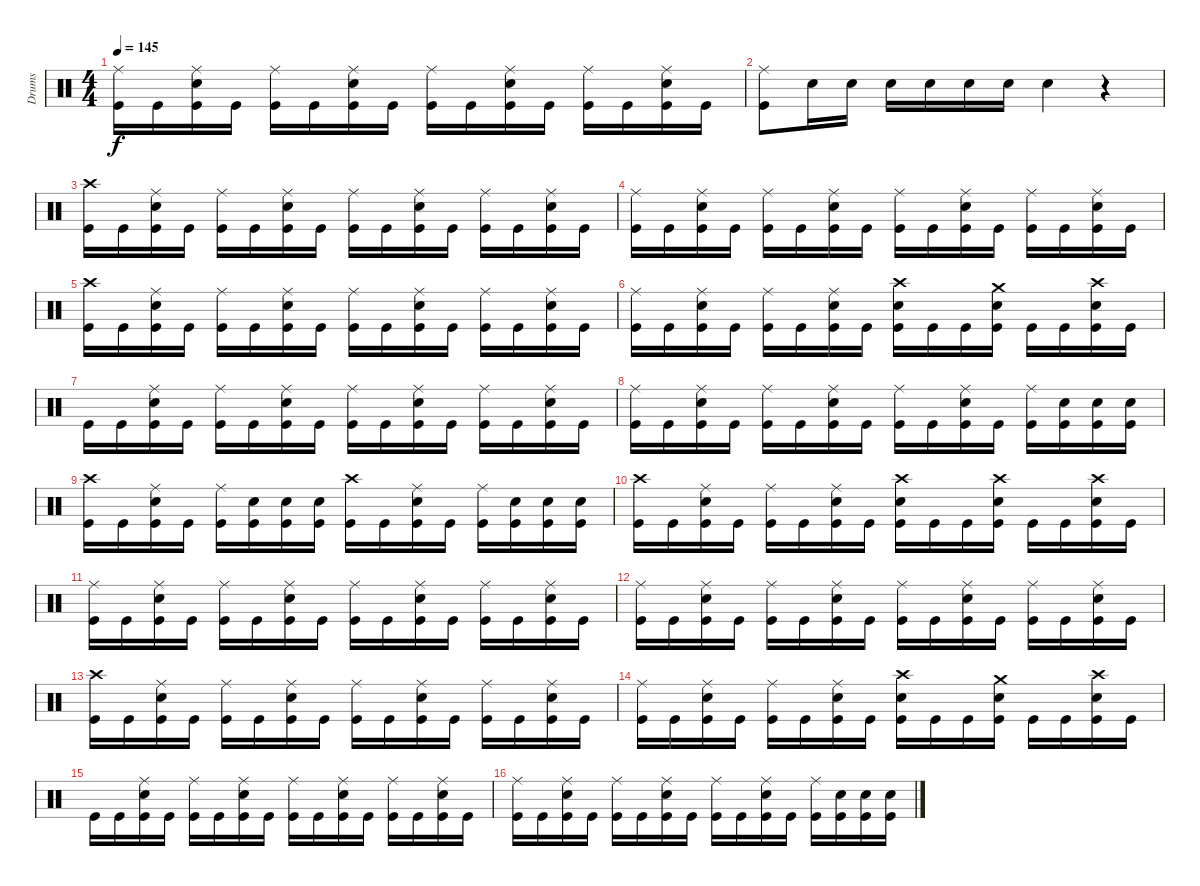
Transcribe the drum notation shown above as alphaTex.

\track ("Drums" "Drums") {instrument percussion}
\staff {score}
\articulation defaults
\ts (4 4)
\tempo 145
\clef neutral
\ks c
("Ride (middle)" "Kick (hit)").16{dy f} "Kick (hit)".16 ("Ride (middle)" "Snare (hit) 2" "Kick (hit)").16 "Kick (hit)".16 ("Ride (middle)" "Kick (hit)").16 "Kick (hit)".16 ("Ride (middle)" "Snare (hit) 2" "Kick (hit)").16 "Kick (hit)".16 ("Ride (middle)" "Kick (hit)").16 "Kick (hit)".16 ("Ride (middle)" "Snare (hit) 2" "Kick (hit)").16 "Kick (hit)".16 ("Ride (middle)" "Kick (hit)").16 "Kick (hit)".16 ("Ride (middle)" "Snare (hit) 2" "Kick (hit)").16 "Kick (hit)".16 |
("Ride (middle)" "Kick (hit)").8 "Snare (hit) 2".16 "Snare (hit) 2".16 "Snare (hit) 2".16 "Snare (hit) 2".16 "Snare (hit) 2".16 "Snare (hit) 2".16 "Snare (hit) 2".4 r.4 |
("Crash high (hit)" "Kick (hit)").16 "Kick (hit)".16 ("Ride (middle)" "Snare (hit) 2" "Kick (hit)").16 "Kick (hit)".16 ("Ride (middle)" "Kick (hit)").16 "Kick (hit)".16 ("Ride (middle)" "Snare (hit) 2" "Kick (hit)").16 "Kick (hit)".16 ("Ride (middle)" "Kick (hit)").16 "Kick (hit)".16 ("Ride (middle)" "Snare (hit) 2" "Kick (hit)").16 "Kick (hit)".16 ("Ride (middle)" "Kick (hit)").16 "Kick (hit)".16 ("Ride (middle)" "Snare (hit) 2" "Kick (hit)").16 "Kick (hit)".16 |
("Ride (middle)" "Kick (hit)").16 "Kick (hit)".16 ("Ride (middle)" "Snare (hit) 2" "Kick (hit)").16 "Kick (hit)".16 ("Ride (middle)" "Kick (hit)").16 "Kick (hit)".16 ("Ride (middle)" "Snare (hit) 2" "Kick (hit)").16 "Kick (hit)".16 ("Ride (middle)" "Kick (hit)").16 "Kick (hit)".16 ("Ride (middle)" "Snare (hit) 2" "Kick (hit)").16 "Kick (hit)".16 ("Ride (middle)" "Kick (hit)").16 "Kick (hit)".16 ("Ride (middle)" "Snare (hit) 2" "Kick (hit)").16 "Kick (hit)".16 |
("Crash high (hit)" "Kick (hit)").16 "Kick (hit)".16 ("Ride (middle)" "Snare (hit) 2" "Kick (hit)").16 "Kick (hit)".16 ("Ride (middle)" "Kick (hit)").16 "Kick (hit)".16 ("Ride (middle)" "Snare (hit) 2" "Kick (hit)").16 "Kick (hit)".16 ("Ride (middle)" "Kick (hit)").16 "Kick (hit)".16 ("Ride (middle)" "Snare (hit) 2" "Kick (hit)").16 "Kick (hit)".16 ("Ride (middle)" "Kick (hit)").16 "Kick (hit)".16 ("Ride (middle)" "Snare (hit) 2" "Kick (hit)").16 "Kick (hit)".16 |
("Ride (middle)" "Kick (hit)").16 "Kick (hit)".16 ("Ride (middle)" "Snare (hit) 2" "Kick (hit)").16 "Kick (hit)".16 ("Ride (middle)" "Kick (hit)").16 "Kick (hit)".16 ("Ride (middle)" "Snare (hit) 2" "Kick (hit)").16 "Kick (hit)".16 ("Crash high (hit)" "Snare (hit) 2" "Kick (hit)").16 "Kick (hit)".16 "Kick (hit)".16 ("Crash medium (hit)" "Snare (hit) 2" "Kick (hit)").16 "Kick (hit)".16 "Kick (hit)".16 ("Crash high (hit)" "Snare (hit) 2" "Kick (hit)").16 "Kick (hit)".16 |
"Kick (hit)".16 "Kick (hit)".16 ("Ride (middle)" "Snare (hit) 2" "Kick (hit)").16 "Kick (hit)".16 ("Ride (middle)" "Kick (hit)").16 "Kick (hit)".16 ("Ride (middle)" "Snare (hit) 2" "Kick (hit)").16 "Kick (hit)".16 ("Ride (middle)" "Kick (hit)").16 "Kick (hit)".16 ("Ride (middle)" "Snare (hit) 2" "Kick (hit)").16 "Kick (hit)".16 ("Ride (middle)" "Kick (hit)").16 "Kick (hit)".16 ("Ride (middle)" "Snare (hit) 2" "Kick (hit)").16 "Kick (hit)".16 |
("Ride (middle)" "Kick (hit)").16 "Kick (hit)".16 ("Ride (middle)" "Snare (hit) 2" "Kick (hit)").16 "Kick (hit)".16 ("Ride (middle)" "Kick (hit)").16 "Kick (hit)".16 ("Ride (middle)" "Snare (hit) 2" "Kick (hit)").16 "Kick (hit)".16 ("Ride (middle)" "Kick (hit)").16 "Kick (hit)".16 ("Ride (middle)" "Snare (hit) 2" "Kick (hit)").16 "Kick (hit)".16 ("Ride (middle)" "Kick (hit)").16 ("Snare (hit) 2" "Kick (hit)").16 ("Snare (hit) 2" "Kick (hit)").16 ("Snare (hit) 2" "Kick (hit)").16 |
("Crash high (hit)" "Kick (hit)").16 "Kick (hit)".16 ("Ride (middle)" "Snare (hit) 2" "Kick (hit)").16 "Kick (hit)".16 ("Ride (middle)" "Kick (hit)").16 ("Snare (hit) 2" "Kick (hit)").16 ("Snare (hit) 2" "Kick (hit)").16 ("Snare (hit) 2" "Kick (hit)").16 ("Crash high (hit)" "Kick (hit)").16 "Kick (hit)".16 ("Ride (middle)" "Snare (hit) 2" "Kick (hit)").16 "Kick (hit)".16 ("Ride (middle)" "Kick (hit)").16 ("Snare (hit) 2" "Kick (hit)").16 ("Snare (hit) 2" "Kick (hit)").16 ("Snare (hit) 2" "Kick (hit)").16 |
("Crash high (hit)" "Kick (hit)").16 "Kick (hit)".16 ("Ride (middle)" "Snare (hit) 2" "Kick (hit)").16 "Kick (hit)".16 ("Ride (middle)" "Kick (hit)").16 "Kick (hit)".16 ("Ride (middle)" "Snare (hit) 2" "Kick (hit)").16 "Kick (hit)".16 ("Crash high (hit)" "Snare (hit) 2" "Kick (hit)").16 "Kick (hit)".16 "Kick (hit)".16 ("Crash high (hit)" "Snare (hit) 2" "Kick (hit)").16 "Kick (hit)".16 "Kick (hit)".16 ("Crash high (hit)" "Snare (hit) 2" "Kick (hit)").16 "Kick (hit)".16 |
("Ride (middle)" "Kick (hit)").16 "Kick (hit)".16 ("Ride (middle)" "Snare (hit) 2" "Kick (hit)").16 "Kick (hit)".16 ("Ride (middle)" "Kick (hit)").16 "Kick (hit)".16 ("Ride (middle)" "Snare (hit) 2" "Kick (hit)").16 "Kick (hit)".16 ("Ride (middle)" "Kick (hit)").16 "Kick (hit)".16 ("Ride (middle)" "Snare (hit) 2" "Kick (hit)").16 "Kick (hit)".16 ("Ride (middle)" "Kick (hit)").16 "Kick (hit)".16 ("Ride (middle)" "Snare (hit) 2" "Kick (hit)").16 "Kick (hit)".16 |
("Ride (middle)" "Kick (hit)").16 "Kick (hit)".16 ("Ride (middle)" "Snare (hit) 2" "Kick (hit)").16 "Kick (hit)".16 ("Ride (middle)" "Kick (hit)").16 "Kick (hit)".16 ("Ride (middle)" "Snare (hit) 2" "Kick (hit)").16 "Kick (hit)".16 ("Ride (middle)" "Kick (hit)").16 "Kick (hit)".16 ("Ride (middle)" "Snare (hit) 2" "Kick (hit)").16 "Kick (hit)".16 ("Ride (middle)" "Kick (hit)").16 "Kick (hit)".16 ("Ride (middle)" "Snare (hit) 2" "Kick (hit)").16 "Kick (hit)".16 |
("Crash high (hit)" "Kick (hit)").16 "Kick (hit)".16 ("Ride (middle)" "Snare (hit) 2" "Kick (hit)").16 "Kick (hit)".16 ("Ride (middle)" "Kick (hit)").16 "Kick (hit)".16 ("Ride (middle)" "Snare (hit) 2" "Kick (hit)").16 "Kick (hit)".16 ("Ride (middle)" "Kick (hit)").16 "Kick (hit)".16 ("Ride (middle)" "Snare (hit) 2" "Kick (hit)").16 "Kick (hit)".16 ("Ride (middle)" "Kick (hit)").16 "Kick (hit)".16 ("Ride (middle)" "Snare (hit) 2" "Kick (hit)").16 "Kick (hit)".16 |
("Ride (middle)" "Kick (hit)").16 "Kick (hit)".16 ("Ride (middle)" "Snare (hit) 2" "Kick (hit)").16 "Kick (hit)".16 ("Ride (middle)" "Kick (hit)").16 "Kick (hit)".16 ("Ride (middle)" "Snare (hit) 2" "Kick (hit)").16 "Kick (hit)".16 ("Crash high (hit)" "Snare (hit) 2" "Kick (hit)").16 "Kick (hit)".16 "Kick (hit)".16 ("Crash medium (hit)" "Snare (hit) 2" "Kick (hit)").16 "Kick (hit)".16 "Kick (hit)".16 ("Crash high (hit)" "Snare (hit) 2" "Kick (hit)").16 "Kick (hit)".16 |
"Kick (hit)".16 "Kick (hit)".16 ("Ride (middle)" "Snare (hit) 2" "Kick (hit)").16 "Kick (hit)".16 ("Ride (middle)" "Kick (hit)").16 "Kick (hit)".16 ("Ride (middle)" "Snare (hit) 2" "Kick (hit)").16 "Kick (hit)".16 ("Ride (middle)" "Kick (hit)").16 "Kick (hit)".16 ("Ride (middle)" "Snare (hit) 2" "Kick (hit)").16 "Kick (hit)".16 ("Ride (middle)" "Kick (hit)").16 "Kick (hit)".16 ("Ride (middle)" "Snare (hit) 2" "Kick (hit)").16 "Kick (hit)".16 |
("Ride (middle)" "Kick (hit)").16 "Kick (hit)".16 ("Ride (middle)" "Snare (hit) 2" "Kick (hit)").16 "Kick (hit)".16 ("Ride (middle)" "Kick (hit)").16 "Kick (hit)".16 ("Ride (middle)" "Snare (hit) 2" "Kick (hit)").16 "Kick (hit)".16 ("Ride (middle)" "Kick (hit)").16 "Kick (hit)".16 ("Ride (middle)" "Snare (hit) 2" "Kick (hit)").16 "Kick (hit)".16 ("Ride (middle)" "Kick (hit)").16 ("Snare (hit) 2" "Kick (hit)").16 ("Snare (hit) 2" "Kick (hit)").16 ("Snare (hit) 2" "Kick (hit)").16
